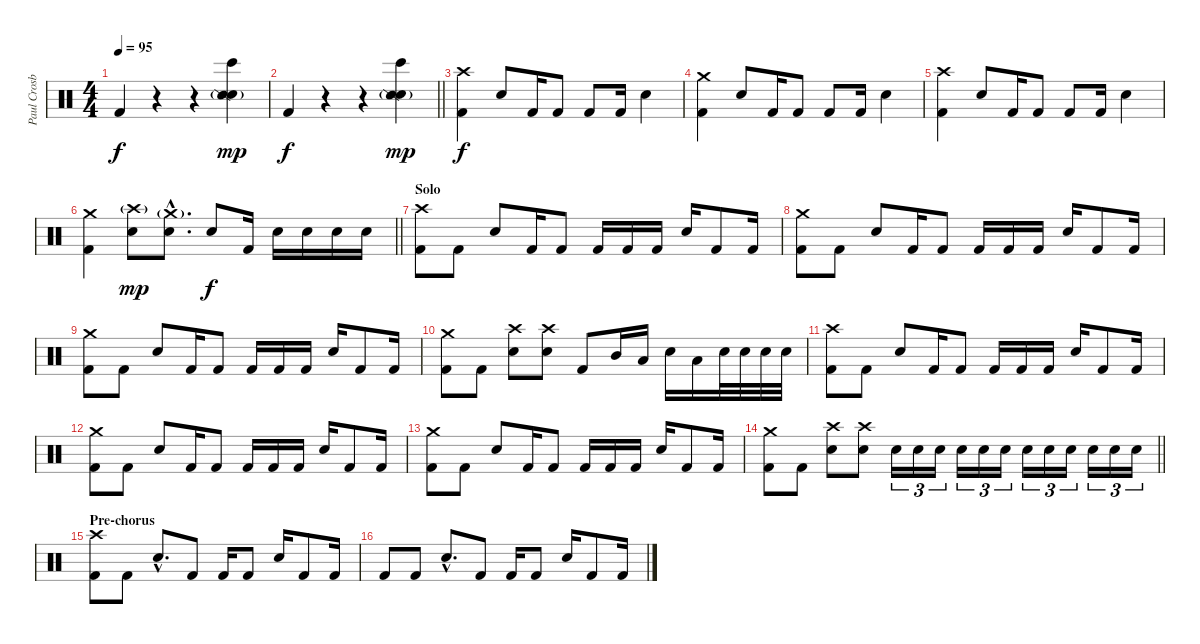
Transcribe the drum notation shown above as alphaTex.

\track ("Paul Crosby (Drums)" "Paul Crosb") {instrument percussion}
\staff {score}
\articulation defaults
\ts (4 4)
\tempo 95
\clef neutral
\ks c "Kick (hit) 2".4{dy f}
r.4 r.4 ("Snare (hit) 2"{g} "Bongo High (hit)" "Snare (side stick) 2").4{dy mp} |
\barLineRight lightlight "Kick (hit) 2".4{dy f}
r.4 r.4 ("Snare (hit) 2"{g} "Bongo High (hit)" "Snare (side stick) 2").4{dy mp} |
("Crash high (hit)" "Kick (hit) 2").4{dy f} "Electric Snare (hit)".8 "Kick (hit) 2".16 "Kick (hit) 2".8 "Kick (hit) 2".8 "Kick (hit) 2".16 "Electric Snare (hit)".4 |
("Crash medium (hit)" "Kick (hit) 2").4 "Electric Snare (hit)".8 "Kick (hit) 2".16 "Kick (hit) 2".8 "Kick (hit) 2".8 "Kick (hit) 2".16 "Electric Snare (hit)".4 |
("Crash high (hit)" "Kick (hit) 2").4 "Electric Snare (hit)".8 "Kick (hit) 2".16 "Kick (hit) 2".8 "Kick (hit) 2".8 "Kick (hit) 2".16 "Electric Snare (hit)".4 |
\barLineRight lightlight
("Crash medium (hit)" "Kick (hit) 2").4 ("Crash high (hit)"{g} "Electric Snare (hit)").8{dy mp} ("Crash medium (hit)"{g hac} "Electric Snare (hit)"{hac}).8{d} "Electric Snare (hit)".8{dy f} "Kick (hit) 2".16 "Electric Snare (hit)".16 "Electric Snare (hit)".16 "Electric Snare (hit)".16 "Electric Snare (hit)".16 |
\section ("" "Solo")
("Crash high (hit)" "Kick (hit) 2").8 "Kick (hit) 2".8 "Electric Snare (hit)".8 "Kick (hit) 2".16 "Kick (hit) 2".8 "Kick (hit) 2".16 "Kick (hit) 2".16 "Kick (hit) 2".16 "Electric Snare (hit)".16 "Kick (hit) 2".8 "Kick (hit) 2".16 |
("Crash medium (hit)" "Kick (hit) 2").8 "Kick (hit) 2".8 "Electric Snare (hit)".8 "Kick (hit) 2".16 "Kick (hit) 2".8 "Kick (hit) 2".16 "Kick (hit) 2".16 "Kick (hit) 2".16 "Electric Snare (hit)".16 "Kick (hit) 2".8 "Kick (hit) 2".16 |
("Crash medium (hit)" "Kick (hit) 2").8 "Kick (hit) 2".8 "Electric Snare (hit)".8 "Kick (hit) 2".16 "Kick (hit) 2".8 "Kick (hit) 2".16 "Kick (hit) 2".16 "Kick (hit) 2".16 "Electric Snare (hit)".16 "Kick (hit) 2".8 "Kick (hit) 2".16 |
("Crash medium (hit)" "Kick (hit) 2").8 "Kick (hit) 2".8 ("Crash high (hit)" "Electric Snare (hit)").8 ("Crash high (hit)" "Electric Snare (hit)").8 "Kick (hit) 2".8 "Mid Tom (hit)".16 "Low Tom (hit)".16 "Electric Snare (hit)".16 "Low Floor Tom (hit)".16 "Electric Snare (hit)".32 "Electric Snare (hit)".32 "Electric Snare (hit)".32 "Electric Snare (hit)".32 |
("Crash high (hit)" "Kick (hit) 2").8 "Kick (hit) 2".8 "Electric Snare (hit)".8 "Kick (hit) 2".16 "Kick (hit) 2".8 "Kick (hit) 2".16 "Kick (hit) 2".16 "Kick (hit) 2".16 "Electric Snare (hit)".16 "Kick (hit) 2".8 "Kick (hit) 2".16 |
("Crash medium (hit)" "Kick (hit) 2").8 "Kick (hit) 2".8 "Electric Snare (hit)".8 "Kick (hit) 2".16 "Kick (hit) 2".8 "Kick (hit) 2".16 "Kick (hit) 2".16 "Kick (hit) 2".16 "Electric Snare (hit)".16 "Kick (hit) 2".8 "Kick (hit) 2".16 |
("Crash medium (hit)" "Kick (hit) 2").8 "Kick (hit) 2".8 "Electric Snare (hit)".8 "Kick (hit) 2".16 "Kick (hit) 2".8 "Kick (hit) 2".16 "Kick (hit) 2".16 "Kick (hit) 2".16 "Electric Snare (hit)".16 "Kick (hit) 2".8 "Kick (hit) 2".16 |
\barLineRight lightlight
("Crash medium (hit)" "Kick (hit) 2").8 "Kick (hit) 2".8 ("Crash high (hit)" "Electric Snare (hit)").8 ("Crash high (hit)" "Electric Snare (hit)").8 "Electric Snare (hit)".16{tu (3 2)} "Electric Snare (hit)".16{tu (3 2)} "Electric Snare (hit)".16{tu (3 2)} "Electric Snare (hit)".16{tu (3 2)} "Electric Snare (hit)".16{tu (3 2)} "Electric Snare (hit)".16{tu (3 2)} "Electric Snare (hit)".16{tu (3 2)} "Electric Snare (hit)".16{tu (3 2)} "Electric Snare (hit)".16{tu (3 2)} "Electric Snare (hit)".16{tu (3 2)} "Electric Snare (hit)".16{tu (3 2)} "Electric Snare (hit)".16{tu (3 2)} |
\section ("" "Pre-chorus")
("Crash high (hit)" "Kick (hit) 2").8 "Kick (hit) 2".8 "Electric Snare (hit)"{hac}.8{d} "Kick (hit) 2".8 "Kick (hit) 2".16 "Kick (hit) 2".8 "Electric Snare (hit)".16 "Kick (hit) 2".8 "Kick (hit) 2".16 |
"Kick (hit) 2".8 "Kick (hit) 2".8 "Electric Snare (hit)"{hac}.8{d} "Kick (hit) 2".8 "Kick (hit) 2".16 "Kick (hit) 2".8 "Electric Snare (hit)".16 "Kick (hit) 2".8 "Kick (hit) 2".16
